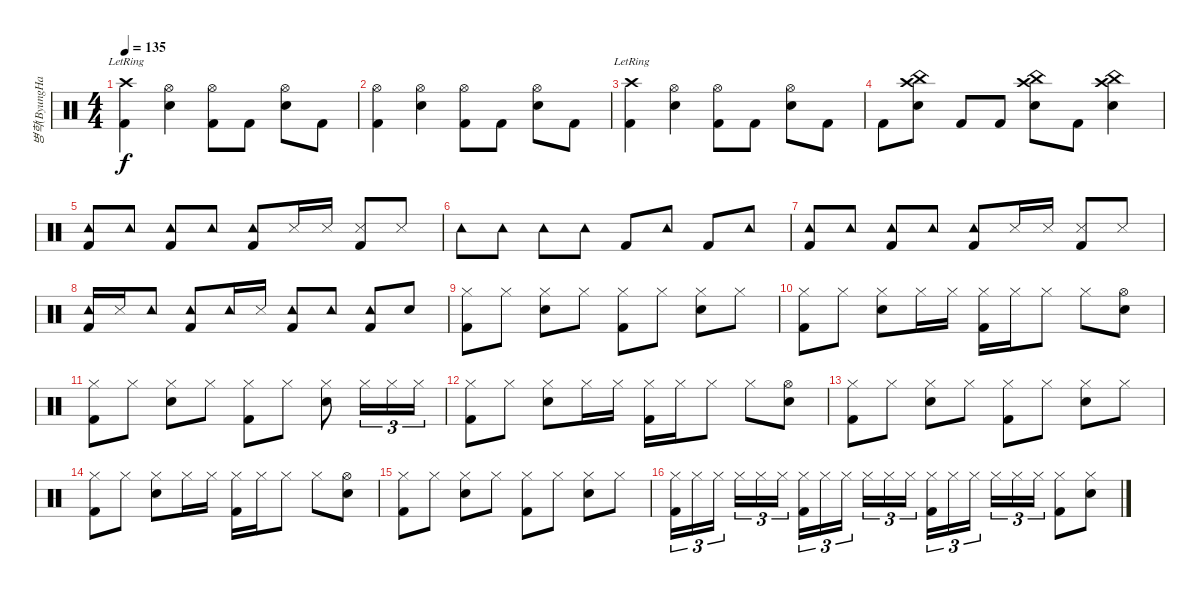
\track ("병학(ByungHak)" "병학(ByungHa") {instrument percussion}
\staff {score}
\articulation defaults
\ts (4 4)
\tempo 135
\clef neutral
\ks c
("Crash high (hit)"{lr} "Kick (hit) 2").4{dy f} ("Hi-Hat (open)" "Snare (hit) 2").4 ("Hi-Hat (open)" "Kick (hit) 2").8 "Kick (hit) 2".8 ("Hi-Hat (open)" "Snare (hit) 2").8 "Kick (hit) 2".8 |
("Hi-Hat (open)" "Kick (hit) 2").4 ("Hi-Hat (open)" "Snare (hit) 2").4 ("Hi-Hat (open)" "Kick (hit) 2").8 "Kick (hit) 2".8 ("Hi-Hat (open)" "Snare (hit) 2").8 "Kick (hit) 2".8 |
("Crash high (hit)"{lr} "Kick (hit) 2").4 ("Hi-Hat (open)" "Snare (hit) 2").4 ("Hi-Hat (open)" "Kick (hit) 2").8 "Kick (hit) 2".8 ("Hi-Hat (open)" "Snare (hit) 2").8 "Kick (hit) 2".8 |
"Kick (hit) 2".8 ("Crash high (hit)" "China (hit)" "Snare (hit) 2").8 "Kick (hit) 2".8 "Kick (hit) 2".8 ("Crash high (hit)" "China (hit)" "Snare (hit) 2").8 "Kick (hit) 2".8 ("Crash high (hit)" "China (hit)" "Snare (hit) 2").4 |
("Tambourine (hit)" "Kick (hit) 2").8 "Tambourine (hit)".8 ("Tambourine (hit)" "Kick (hit) 2").8 "Tambourine (hit)".8 ("Tambourine (hit)" "Kick (hit) 2").8 "Snare (side stick) 3".16 "Snare (side stick) 3".16 ("Snare (side stick) 3" "Kick (hit) 2").8 "Snare (side stick) 3".8 |
"Tambourine (hit)".8 "Tambourine (hit)".8 "Tambourine (hit)".8 "Tambourine (hit)".8 "Kick (hit) 2".8 "Tambourine (hit)".8 "Kick (hit) 2".8 "Tambourine (hit)".8 |
("Tambourine (hit)" "Kick (hit) 2").8 "Tambourine (hit)".8 ("Tambourine (hit)" "Kick (hit) 2").8 "Tambourine (hit)".8 ("Tambourine (hit)" "Kick (hit) 2").8 "Snare (side stick) 3".16 "Snare (side stick) 3".16 ("Snare (side stick) 3" "Kick (hit) 2").8 "Snare (side stick) 3".8 |
("Tambourine (hit)" "Kick (hit) 2").16 "Snare (side stick) 3".16 "Tambourine (hit)".8 ("Tambourine (hit)" "Kick (hit) 2").8 "Tambourine (hit)".16 "Snare (side stick) 3".16 ("Tambourine (hit)" "Kick (hit) 2").8 "Tambourine (hit)".8 ("Tambourine (hit)" "Kick (hit) 2").8 "Snare (hit) 2".8 |
("Hi-Hat (closed)" "Kick (hit) 2").8 "Hi-Hat (closed)".8 ("Hi-Hat (closed)" "Snare (hit) 2").8 "Hi-Hat (closed)".8 ("Hi-Hat (closed)" "Kick (hit) 2").8 "Hi-Hat (closed)".8 ("Hi-Hat (closed)" "Snare (hit) 2").8 "Hi-Hat (closed)".8 |
("Hi-Hat (closed)" "Kick (hit) 2").8 "Hi-Hat (closed)".8 ("Hi-Hat (closed)" "Snare (hit) 2").8 "Hi-Hat (closed)".16 "Hi-Hat (closed)".16 ("Hi-Hat (closed)" "Kick (hit) 2").16 "Hi-Hat (closed)".16 "Hi-Hat (closed)".8 "Hi-Hat (closed)".8 ("Hi-Hat (open)" "Snare (hit) 2").8 |
("Hi-Hat (closed)" "Kick (hit) 2").8 "Hi-Hat (closed)".8 ("Hi-Hat (closed)" "Snare (hit) 2").8 "Hi-Hat (closed)".8 ("Hi-Hat (closed)" "Kick (hit) 2").8 "Hi-Hat (closed)".8 ("Hi-Hat (closed)" "Snare (hit) 2").8 "Hi-Hat (closed)".16{tu (3 2)} "Hi-Hat (closed)".16{tu (3 2)} "Hi-Hat (closed)".16{tu (3 2)} |
("Hi-Hat (closed)" "Kick (hit) 2").8 "Hi-Hat (closed)".8 ("Hi-Hat (closed)" "Snare (hit) 2").8 "Hi-Hat (closed)".16 "Hi-Hat (closed)".16 ("Hi-Hat (closed)" "Kick (hit) 2").16 "Hi-Hat (closed)".16 "Hi-Hat (closed)".8 "Hi-Hat (closed)".8 ("Hi-Hat (open)" "Snare (hit) 2").8 |
("Hi-Hat (closed)" "Kick (hit) 2").8 "Hi-Hat (closed)".8 ("Hi-Hat (closed)" "Snare (hit) 2").8 "Hi-Hat (closed)".8 ("Hi-Hat (closed)" "Kick (hit) 2").8 "Hi-Hat (closed)".8 ("Hi-Hat (closed)" "Snare (hit) 2").8 "Hi-Hat (closed)".8 |
("Hi-Hat (closed)" "Kick (hit) 2").8 "Hi-Hat (closed)".8 ("Hi-Hat (closed)" "Snare (hit) 2").8 "Hi-Hat (closed)".16 "Hi-Hat (closed)".16 ("Hi-Hat (closed)" "Kick (hit) 2").16 "Hi-Hat (closed)".16 "Hi-Hat (closed)".8 "Hi-Hat (closed)".8 ("Hi-Hat (open)" "Snare (hit) 2").8 |
("Hi-Hat (closed)" "Kick (hit) 2").8 "Hi-Hat (closed)".8 ("Hi-Hat (closed)" "Snare (hit) 2").8 "Hi-Hat (closed)".8 ("Hi-Hat (closed)" "Kick (hit) 2").8 "Hi-Hat (closed)".8 ("Hi-Hat (closed)" "Snare (hit) 2").8 "Hi-Hat (closed)".8 |
("Hi-Hat (closed)" "Kick (hit) 2").16{tu (3 2)} "Hi-Hat (closed)".16{tu (3 2)} "Hi-Hat (closed)".16{tu (3 2)} "Hi-Hat (closed)".16{tu (3 2)} "Hi-Hat (closed)".16{tu (3 2)} "Hi-Hat (closed)".16{tu (3 2)} ("Hi-Hat (closed)" "Kick (hit) 2").16{tu (3 2)} "Hi-Hat (closed)".16{tu (3 2)} "Hi-Hat (closed)".16{tu (3 2)} "Hi-Hat (closed)".16{tu (3 2)} "Hi-Hat (closed)".16{tu (3 2)} "Hi-Hat (closed)".16{tu (3 2)} ("Hi-Hat (closed)" "Kick (hit) 2").16{tu (3 2)} "Hi-Hat (closed)".16{tu (3 2)} "Hi-Hat (closed)".16{tu (3 2)} "Hi-Hat (closed)".16{tu (3 2)} "Hi-Hat (closed)".16{tu (3 2)} "Hi-Hat (closed)".16{tu (3 2)} ("Hi-Hat (closed)" "Kick (hit) 2").8 ("Hi-Hat (closed)" "Snare (hit) 2").8
